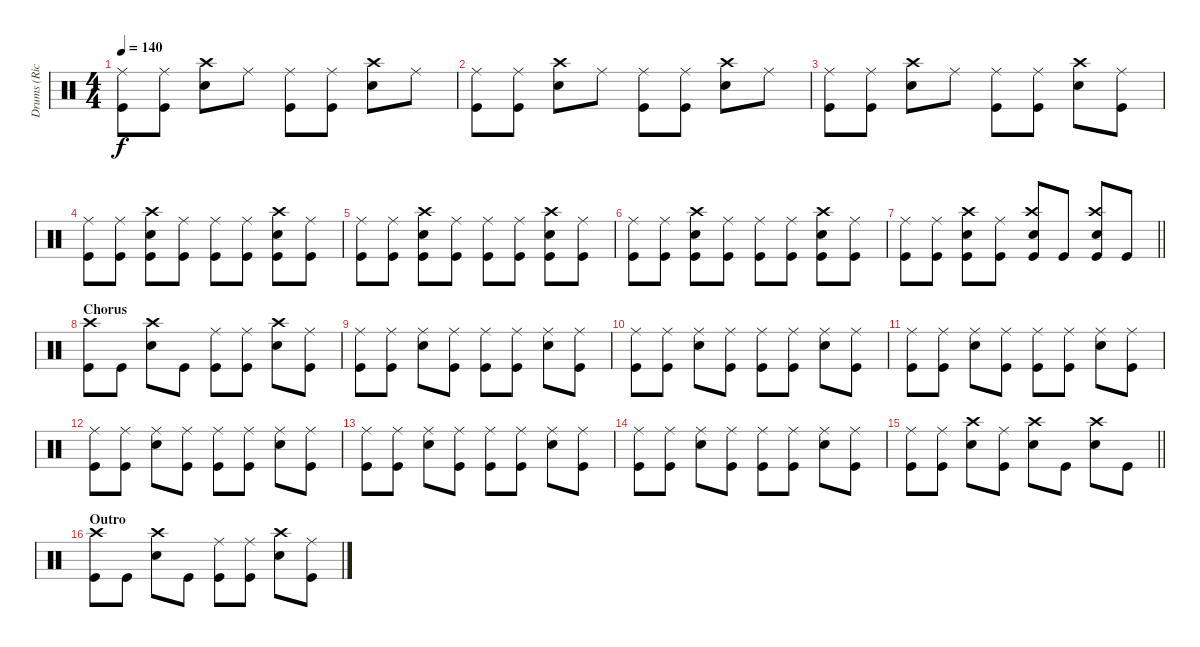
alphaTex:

\track ("Drums (Rick)" "Drums (Ric") {instrument percussion}
\staff {score}
\articulation defaults
\ts (4 4)
\tempo 140
\clef neutral
\ks aminor
("Ride (middle)" "Kick (hit)").8{dy f} ("Ride (middle)" "Kick (hit)").8 ("Crash high (hit)" "Snare (hit) 2").8 "Ride (middle)".8 ("Ride (middle)" "Kick (hit)").8 ("Ride (middle)" "Kick (hit)").8 ("Crash high (hit)" "Snare (hit) 2").8 "Ride (middle)".8 |
("Ride (middle)" "Kick (hit)").8 ("Ride (middle)" "Kick (hit)").8 ("Crash high (hit)" "Snare (hit) 2").8 "Ride (middle)".8 ("Ride (middle)" "Kick (hit)").8 ("Ride (middle)" "Kick (hit)").8 ("Crash high (hit)" "Snare (hit) 2").8 "Ride (middle)".8 |
("Ride (middle)" "Kick (hit)").8 ("Ride (middle)" "Kick (hit)").8 ("Crash high (hit)" "Snare (hit) 2").8 "Ride (middle)".8 ("Ride (middle)" "Kick (hit)").8 ("Ride (middle)" "Kick (hit)").8 ("Crash high (hit)" "Snare (hit) 2").8 ("Ride (middle)" "Kick (hit)").8 |
("Ride (middle)" "Kick (hit)").8 ("Ride (middle)" "Kick (hit)").8 ("Crash high (hit)" "Snare (hit) 2" "Kick (hit)").8 ("Ride (middle)" "Kick (hit)").8 ("Ride (middle)" "Kick (hit)").8 ("Ride (middle)" "Kick (hit)").8 ("Crash high (hit)" "Snare (hit) 2" "Kick (hit)").8 ("Ride (middle)" "Kick (hit)").8 |
("Ride (middle)" "Kick (hit)").8 ("Ride (middle)" "Kick (hit)").8 ("Crash high (hit)" "Snare (hit) 2" "Kick (hit)").8 ("Ride (middle)" "Kick (hit)").8 ("Ride (middle)" "Kick (hit)").8 ("Ride (middle)" "Kick (hit)").8 ("Crash high (hit)" "Snare (hit) 2" "Kick (hit)").8 ("Ride (middle)" "Kick (hit)").8 |
("Ride (middle)" "Kick (hit)").8 ("Ride (middle)" "Kick (hit)").8 ("Crash high (hit)" "Snare (hit) 2" "Kick (hit)").8 ("Ride (middle)" "Kick (hit)").8 ("Ride (middle)" "Kick (hit)").8 ("Ride (middle)" "Kick (hit)").8 ("Crash high (hit)" "Snare (hit) 2" "Kick (hit)").8 ("Ride (middle)" "Kick (hit)").8 |
\barLineRight lightlight
("Ride (middle)" "Kick (hit)").8 ("Ride (middle)" "Kick (hit)").8 ("Crash high (hit)" "Snare (hit) 2" "Kick (hit)").8 ("Ride (middle)" "Kick (hit)").8 ("Crash high (hit)" "Snare (hit) 2" "Kick (hit)").8 "Kick (hit)".8 ("Crash high (hit)" "Snare (hit) 2" "Kick (hit)").8 "Kick (hit)".8 |
\section ("" "Chorus")
("Crash high (hit)" "Kick (hit)").8 "Kick (hit)".8 ("Crash high (hit)" "Snare (hit) 2").8 "Kick (hit)".8 ("Ride (middle)" "Kick (hit)").8 ("Ride (middle)" "Kick (hit)").8 ("Crash high (hit)" "Snare (hit) 2").8 ("Ride (middle)" "Kick (hit)").8 |
("Ride (middle)" "Kick (hit)").8 ("Ride (middle)" "Kick (hit)").8 ("Ride (middle)" "Snare (hit) 2").8 ("Ride (middle)" "Kick (hit)").8 ("Ride (middle)" "Kick (hit)").8 ("Ride (middle)" "Kick (hit)").8 ("Ride (middle)" "Snare (hit) 2").8 ("Ride (middle)" "Kick (hit)").8 |
("Ride (middle)" "Kick (hit)").8 ("Ride (middle)" "Kick (hit)").8 ("Ride (middle)" "Snare (hit) 2").8 ("Ride (middle)" "Kick (hit)").8 ("Ride (middle)" "Kick (hit)").8 ("Ride (middle)" "Kick (hit)").8 ("Ride (middle)" "Snare (hit) 2").8 ("Ride (middle)" "Kick (hit)").8 |
("Ride (middle)" "Kick (hit)").8 ("Ride (middle)" "Kick (hit)").8 ("Ride (middle)" "Snare (hit) 2").8 ("Ride (middle)" "Kick (hit)").8 ("Ride (middle)" "Kick (hit)").8 ("Ride (middle)" "Kick (hit)").8 ("Ride (middle)" "Snare (hit) 2").8 ("Ride (middle)" "Kick (hit)").8 |
("Ride (middle)" "Kick (hit)").8 ("Ride (middle)" "Kick (hit)").8 ("Ride (middle)" "Snare (hit) 2").8 ("Ride (middle)" "Kick (hit)").8 ("Ride (middle)" "Kick (hit)").8 ("Ride (middle)" "Kick (hit)").8 ("Ride (middle)" "Snare (hit) 2").8 ("Ride (middle)" "Kick (hit)").8 |
("Ride (middle)" "Kick (hit)").8 ("Ride (middle)" "Kick (hit)").8 ("Ride (middle)" "Snare (hit) 2").8 ("Ride (middle)" "Kick (hit)").8 ("Ride (middle)" "Kick (hit)").8 ("Ride (middle)" "Kick (hit)").8 ("Ride (middle)" "Snare (hit) 2").8 ("Ride (middle)" "Kick (hit)").8 |
("Ride (middle)" "Kick (hit)").8 ("Ride (middle)" "Kick (hit)").8 ("Ride (middle)" "Snare (hit) 2").8 ("Ride (middle)" "Kick (hit)").8 ("Ride (middle)" "Kick (hit)").8 ("Ride (middle)" "Kick (hit)").8 ("Ride (middle)" "Snare (hit) 2").8 ("Ride (middle)" "Kick (hit)").8 |
\barLineRight lightlight
("Ride (middle)" "Kick (hit)").8 ("Ride (middle)" "Kick (hit)").8 ("Crash high (hit)" "Snare (hit) 2").8 ("Ride (middle)" "Kick (hit)").8 ("Crash high (hit)" "Snare (hit) 2").8 "Kick (hit)".8 ("Crash high (hit)" "Snare (hit) 2").8 "Kick (hit)".8 |
\section ("" "Outro")
("Crash high (hit)" "Kick (hit)").8 "Kick (hit)".8 ("Crash high (hit)" "Snare (hit) 2").8 "Kick (hit)".8 ("Ride (middle)" "Kick (hit)").8 ("Ride (middle)" "Kick (hit)").8 ("Crash high (hit)" "Snare (hit) 2").8 ("Ride (middle)" "Kick (hit)").8
